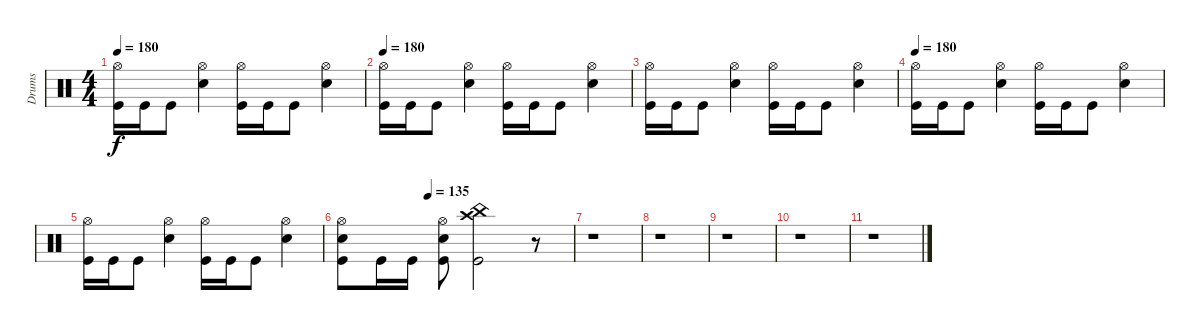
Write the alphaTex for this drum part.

\track ("Drums" "Drums") {instrument percussion}
\staff {score}
\articulation defaults
\ts (4 4)
\tempo 180
\clef neutral
\ks c
("Hi-Hat (open)" "Kick (hit)").16{dy f} "Kick (hit)".16 "Kick (hit)".8 ("Hi-Hat (open)" "Electric Snare (hit)").4 ("Hi-Hat (open)" "Kick (hit)").16 "Kick (hit)".16 "Kick (hit)".8 ("Hi-Hat (open)" "Electric Snare (hit)").4 |
\tempo 180
("Hi-Hat (open)" "Kick (hit)").16 "Kick (hit)".16 "Kick (hit)".8 ("Hi-Hat (open)" "Electric Snare (hit)").4 ("Hi-Hat (open)" "Kick (hit)").16 "Kick (hit)".16 "Kick (hit)".8 ("Hi-Hat (open)" "Electric Snare (hit)").4 |
("Hi-Hat (open)" "Kick (hit)").16 "Kick (hit)".16 "Kick (hit)".8 ("Hi-Hat (open)" "Electric Snare (hit)").4 ("Hi-Hat (open)" "Kick (hit)").16 "Kick (hit)".16 "Kick (hit)".8 ("Hi-Hat (open)" "Electric Snare (hit)").4 |
\tempo 180
("Hi-Hat (open)" "Kick (hit)").16 "Kick (hit)".16 "Kick (hit)".8 ("Hi-Hat (open)" "Electric Snare (hit)").4 ("Hi-Hat (open)" "Kick (hit)").16 "Kick (hit)".16 "Kick (hit)".8 ("Hi-Hat (open)" "Electric Snare (hit)").4 |
("Hi-Hat (open)" "Kick (hit)").16 "Kick (hit)".16 "Kick (hit)".8 ("Hi-Hat (open)" "Electric Snare (hit)").4 ("Hi-Hat (open)" "Kick (hit)").16 "Kick (hit)".16 "Kick (hit)".8 ("Hi-Hat (open)" "Electric Snare (hit)").4 |
\tempo (135 0.375)
("Hi-Hat (open)" "Electric Snare (hit)" "Kick (hit)").8 "Kick (hit)".16 "Kick (hit)".16 ("Hi-Hat (open)" "Electric Snare (hit)" "Kick (hit)").8 ("Crash high (hit)" "China (hit)" "Kick (hit)").2 r.8 |
r.1 |
r.1 |
r.1 |
r.1 |
r.1
